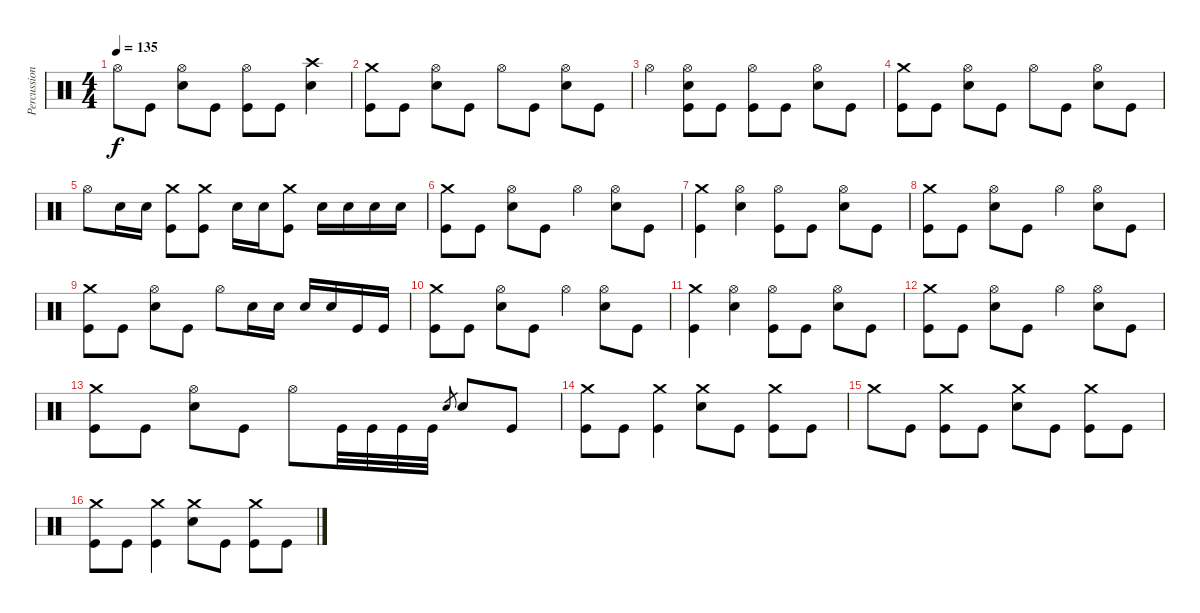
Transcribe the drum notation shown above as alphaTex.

\track ("Percussion" "Percussion") {instrument percussion}
\staff {score}
\articulation defaults
\ts (4 4)
\tempo 135
\clef neutral
\ks c "Hi-Hat (open)".8{dy f} "Kick (hit)".8
("Hi-Hat (open)" "Snare (hit) 2").8 "Kick (hit)".8 ("Hi-Hat (open)" "Kick (hit)").8 "Kick (hit)".8 ("Crash high (hit)" "Snare (hit) 2").4 |
("Crash medium (hit)" "Kick (hit)").8 "Kick (hit)".8 ("Hi-Hat (open)" "Snare (hit) 2").8 "Kick (hit)".8 "Hi-Hat (open)".8 "Kick (hit)".8 ("Hi-Hat (open)" "Snare (hit) 2").8 "Kick (hit)".8 |
"Hi-Hat (open)".4 ("Hi-Hat (open)" "Snare (hit) 2" "Kick (hit)").8 "Kick (hit)".8 ("Hi-Hat (open)" "Kick (hit)").8 "Kick (hit)".8 ("Hi-Hat (open)" "Snare (hit) 2").8 "Kick (hit)".8 |
("Crash medium (hit)" "Kick (hit)").8 "Kick (hit)".8 ("Hi-Hat (open)" "Snare (hit) 2").8 "Kick (hit)".8 "Hi-Hat (open)".8 "Kick (hit)".8 ("Hi-Hat (open)" "Snare (hit) 2").8 "Kick (hit)".8 |
"Hi-Hat (open)".8 "Snare (hit) 2".16 "Snare (hit) 2".16 ("Crash medium (hit)" "Kick (hit)").8 ("Crash medium (hit)" "Kick (hit)").8 "Snare (hit) 2".16 "Snare (hit) 2".16 ("Crash medium (hit)" "Kick (hit)").8 "Snare (hit) 2".16 "Snare (hit) 2".16 "Snare (hit) 2".16 "Snare (hit) 2".16 |
("Crash medium (hit)" "Kick (hit)").8 "Kick (hit)".8 ("Hi-Hat (open)" "Snare (hit) 2").8 "Kick (hit)".8 "Hi-Hat (open)".4 ("Hi-Hat (open)" "Snare (hit) 2").8 "Kick (hit)".8 |
("Crash medium (hit)" "Kick (hit)").4 ("Hi-Hat (open)" "Snare (hit) 2").4 ("Hi-Hat (open)" "Kick (hit)").8 "Kick (hit)".8 ("Hi-Hat (open)" "Snare (hit) 2").8 "Kick (hit)".8 |
("Crash medium (hit)" "Kick (hit)").8 "Kick (hit)".8 ("Hi-Hat (open)" "Snare (hit) 2").8 "Kick (hit)".8 "Hi-Hat (open)".4 ("Hi-Hat (open)" "Snare (hit) 2").8 "Kick (hit)".8 |
("Crash medium (hit)" "Kick (hit)").8 "Kick (hit)".8 ("Hi-Hat (open)" "Snare (hit) 2").8 "Kick (hit)".8 "Hi-Hat (open)".8 "Snare (hit) 2".16 "Snare (hit) 2".16 "Snare (hit) 2".16 "Snare (hit) 2".16 "Kick (hit)".16 "Kick (hit)".16 |
("Crash medium (hit)" "Kick (hit)").8 "Kick (hit)".8 ("Hi-Hat (open)" "Snare (hit) 2").8 "Kick (hit)".8 "Hi-Hat (open)".4 ("Hi-Hat (open)" "Snare (hit) 2").8 "Kick (hit)".8 |
("Crash medium (hit)" "Kick (hit)").4 ("Hi-Hat (open)" "Snare (hit) 2").4 ("Hi-Hat (open)" "Kick (hit)").8 "Kick (hit)".8 ("Hi-Hat (open)" "Snare (hit) 2").8 "Kick (hit)".8 |
("Crash medium (hit)" "Kick (hit)").8 "Kick (hit)".8 ("Hi-Hat (open)" "Snare (hit) 2").8 "Kick (hit)".8 "Hi-Hat (open)".4 ("Hi-Hat (open)" "Snare (hit) 2").8 "Kick (hit)".8 |
("Crash medium (hit)" "Kick (hit)").8 "Kick (hit)".8 ("Hi-Hat (open)" "Snare (hit) 2").8 "Kick (hit)".8 "Hi-Hat (open)".8 "Kick (hit)".32 "Kick (hit)".32 "Kick (hit)".32 "Kick (hit)".32 "Snare (hit) 2".8{gr} "Snare (hit) 2".8 "Kick (hit)".8 |
("Crash medium (hit)" "Kick (hit)").8 "Kick (hit)".8 ("Crash medium (hit)" "Kick (hit)").4 ("Crash medium (hit)" "Snare (hit) 2").8 "Kick (hit)".8 ("Crash medium (hit)" "Kick (hit)").8 "Kick (hit)".8 |
"Crash medium (hit)".8 "Kick (hit)".8 ("Crash medium (hit)" "Kick (hit)").8 "Kick (hit)".8 ("Crash medium (hit)" "Snare (hit) 2").8 "Kick (hit)".8 ("Crash medium (hit)" "Kick (hit)").8 "Kick (hit)".8 |
("Crash medium (hit)" "Kick (hit)").8 "Kick (hit)".8 ("Crash medium (hit)" "Kick (hit)").4 ("Crash medium (hit)" "Snare (hit) 2").8 "Kick (hit)".8 ("Crash medium (hit)" "Kick (hit)").8 "Kick (hit)".8
